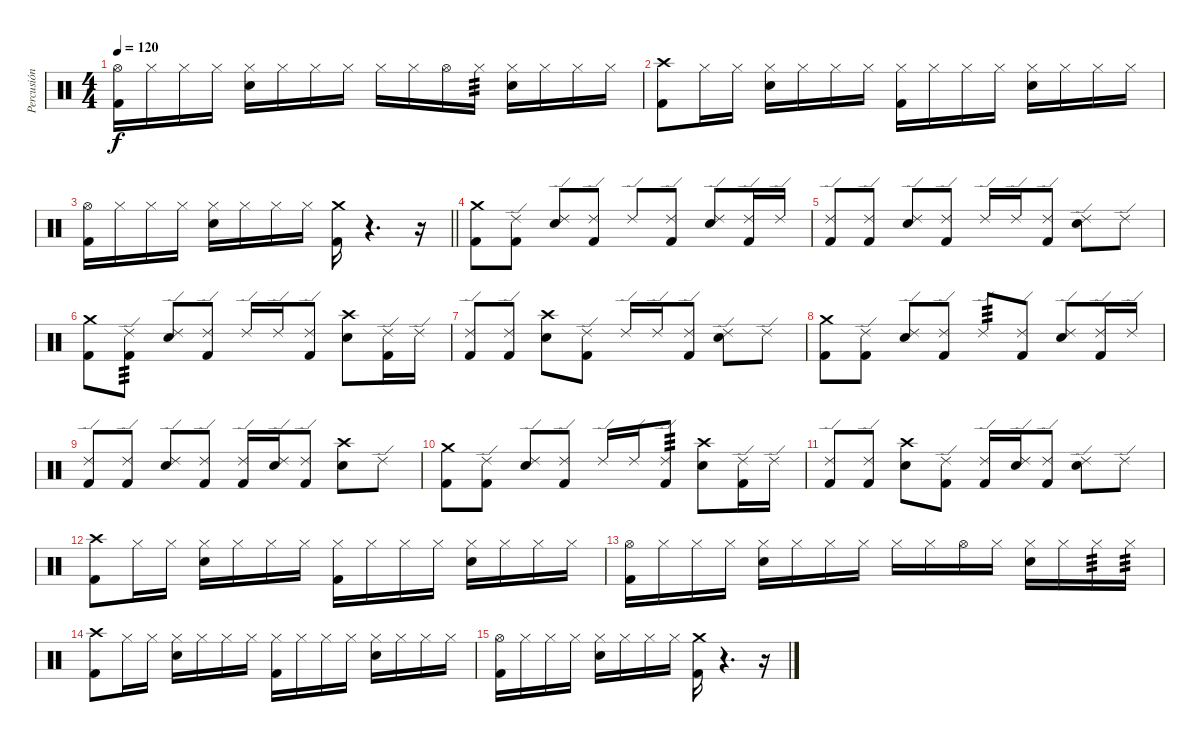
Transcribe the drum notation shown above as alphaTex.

\track ("Percusión" "Percusión") {instrument percussion}
\staff {score}
\articulation defaults
\ts (4 4)
\tempo 120
\clef neutral
\ks c
("Hi-Hat (open)" "Kick (hit) 2").16{dy f} "Hi-Hat (closed)".16 "Hi-Hat (closed)".16 "Hi-Hat (closed)".16 ("Hi-Hat (closed)" "Electric Snare (hit)").16 "Hi-Hat (closed)".16 "Hi-Hat (closed)".16 "Hi-Hat (closed)".16 "Hi-Hat (closed)".16 "Hi-Hat (closed)".16 "Hi-Hat (open)".16 "Hi-Hat (closed)".16{tp 3} ("Hi-Hat (closed)" "Electric Snare (hit)").16 "Hi-Hat (closed)".16 "Hi-Hat (closed)".16 "Hi-Hat (closed)".16 |
("Crash high (hit)" "Kick (hit) 2").8 "Hi-Hat (closed)".16 "Hi-Hat (closed)".16 ("Hi-Hat (closed)" "Electric Snare (hit)").16 "Hi-Hat (closed)".16 "Hi-Hat (closed)".16 "Hi-Hat (closed)".16 ("Hi-Hat (closed)" "Kick (hit) 2").16 "Hi-Hat (closed)".16 "Hi-Hat (closed)".16 "Hi-Hat (closed)".16 ("Hi-Hat (closed)" "Electric Snare (hit)").16 "Hi-Hat (closed)".16 "Hi-Hat (closed)".16 "Hi-Hat (closed)".16 |
\barLineRight lightlight
("Hi-Hat (open)" "Kick (hit) 2").16 "Hi-Hat (closed)".16 "Hi-Hat (closed)".16 "Hi-Hat (closed)".16 ("Hi-Hat (closed)" "Electric Snare (hit)").16 "Hi-Hat (closed)".16 "Hi-Hat (closed)".16 "Hi-Hat (closed)".16 ("Crash medium (hit)" "Kick (hit) 2").16 r.4{d} r.16 |
("Crash medium (hit)" "Kick (hit) 2").8 ("Ride (edge) 2" "Kick (hit) 2").8 ("Ride (edge) 2" "Electric Snare (hit)").8 ("Ride (edge) 2" "Kick (hit) 2").8 "Ride (edge) 2".8 ("Ride (edge) 2" "Kick (hit) 2").8 ("Ride (edge) 2" "Electric Snare (hit)").8 ("Ride (edge) 2" "Kick (hit) 2").16 "Ride (edge) 2".16 |
("Ride (edge) 2" "Kick (hit) 2").8 ("Ride (edge) 2" "Kick (hit) 2").8 ("Ride (edge) 2" "Electric Snare (hit)").8 ("Ride (edge) 2" "Kick (hit) 2").8 "Ride (edge) 2".16 "Ride (edge) 2".16 ("Ride (edge) 2" "Kick (hit) 2").8 ("Ride (edge) 2" "Electric Snare (hit)").8 "Ride (edge) 2".8 |
("Crash medium (hit)" "Kick (hit) 2").8 ("Ride (edge) 2" "Kick (hit) 2").8{tp 3} ("Ride (edge) 2" "Electric Snare (hit)").8 ("Ride (edge) 2" "Kick (hit) 2").8 "Ride (edge) 2".16 "Ride (edge) 2".16 ("Ride (edge) 2" "Kick (hit) 2").8 ("Crash high (hit)" "Electric Snare (hit)").8 ("Ride (edge) 2" "Kick (hit) 2").16 "Ride (edge) 2".16 |
("Ride (edge) 2" "Kick (hit) 2").8 ("Ride (edge) 2" "Kick (hit) 2").8 ("Crash high (hit)" "Electric Snare (hit)").8 ("Ride (edge) 2" "Kick (hit) 2").8 "Ride (edge) 2".16 "Ride (edge) 2".16 ("Ride (edge) 2" "Kick (hit) 2").8 ("Ride (edge) 2" "Electric Snare (hit)").8 "Ride (edge) 2".8 |
("Crash medium (hit)" "Kick (hit) 2").8 ("Ride (edge) 2" "Kick (hit) 2").8 ("Ride (edge) 2" "Electric Snare (hit)").8 ("Ride (edge) 2" "Kick (hit) 2").8 "Ride (edge) 2".8{tp 3} ("Ride (edge) 2" "Kick (hit) 2").8 ("Ride (edge) 2" "Electric Snare (hit)").8 ("Ride (edge) 2" "Kick (hit) 2").16 "Ride (edge) 2".16 |
("Ride (edge) 2" "Kick (hit) 2").8 ("Ride (edge) 2" "Kick (hit) 2").8 ("Ride (edge) 2" "Electric Snare (hit)").8 ("Ride (edge) 2" "Kick (hit) 2").8 ("Ride (edge) 2" "Kick (hit) 2").16 ("Ride (edge) 2" "Electric Snare (hit)").16 ("Ride (edge) 2" "Kick (hit) 2").8 ("Crash high (hit)" "Electric Snare (hit)").8 "Ride (edge) 2".8 |
("Crash medium (hit)" "Kick (hit) 2").8 ("Ride (edge) 2" "Kick (hit) 2").8 ("Ride (edge) 2" "Electric Snare (hit)").8 ("Ride (edge) 2" "Kick (hit) 2").8 "Ride (edge) 2".16 "Ride (edge) 2".16 ("Ride (edge) 2" "Kick (hit) 2").8{tp 3} ("Crash high (hit)" "Electric Snare (hit)").8 ("Ride (edge) 2" "Kick (hit) 2").16 "Ride (edge) 2".16 |
("Ride (edge) 2" "Kick (hit) 2").8 ("Ride (edge) 2" "Kick (hit) 2").8 ("Crash high (hit)" "Electric Snare (hit)").8 ("Ride (edge) 2" "Kick (hit) 2").8 ("Ride (edge) 2" "Kick (hit) 2").16 ("Ride (edge) 2" "Electric Snare (hit)").16 ("Ride (edge) 2" "Kick (hit) 2").8 ("Ride (edge) 2" "Electric Snare (hit)").8 "Ride (edge) 2".8 |
("Crash high (hit)" "Kick (hit) 2").8 "Hi-Hat (closed)".16 "Hi-Hat (closed)".16 ("Hi-Hat (closed)" "Electric Snare (hit)").16 "Hi-Hat (closed)".16 "Hi-Hat (closed)".16 "Hi-Hat (closed)".16 ("Hi-Hat (closed)" "Kick (hit) 2").16 "Hi-Hat (closed)".16 "Hi-Hat (closed)".16 "Hi-Hat (closed)".16 ("Hi-Hat (closed)" "Electric Snare (hit)").16 "Hi-Hat (closed)".16 "Hi-Hat (closed)".16 "Hi-Hat (closed)".16 |
("Hi-Hat (open)" "Kick (hit) 2").16 "Hi-Hat (closed)".16 "Hi-Hat (closed)".16 "Hi-Hat (closed)".16 ("Hi-Hat (closed)" "Electric Snare (hit)").16 "Hi-Hat (closed)".16 "Hi-Hat (closed)".16 "Hi-Hat (closed)".16 "Hi-Hat (closed)".16 "Hi-Hat (closed)".16 "Hi-Hat (open)".16 "Hi-Hat (closed)".16 ("Hi-Hat (closed)" "Electric Snare (hit)").16 "Hi-Hat (closed)".16 "Hi-Hat (closed)".16{tp 3} "Hi-Hat (closed)".16{tp 3} |
("Crash high (hit)" "Kick (hit) 2").8 "Hi-Hat (closed)".16 "Hi-Hat (closed)".16 ("Hi-Hat (closed)" "Electric Snare (hit)").16 "Hi-Hat (closed)".16 "Hi-Hat (closed)".16 "Hi-Hat (closed)".16 ("Hi-Hat (closed)" "Kick (hit) 2").16 "Hi-Hat (closed)".16 "Hi-Hat (closed)".16 "Hi-Hat (closed)".16 ("Hi-Hat (closed)" "Electric Snare (hit)").16 "Hi-Hat (closed)".16 "Hi-Hat (closed)".16 "Hi-Hat (closed)".16 |
("Hi-Hat (open)" "Kick (hit) 2").16 "Hi-Hat (closed)".16 "Hi-Hat (closed)".16 "Hi-Hat (closed)".16 ("Hi-Hat (closed)" "Electric Snare (hit)").16 "Hi-Hat (closed)".16 "Hi-Hat (closed)".16 "Hi-Hat (closed)".16 ("Crash medium (hit)" "Kick (hit) 2").16 r.4{d} r.16
